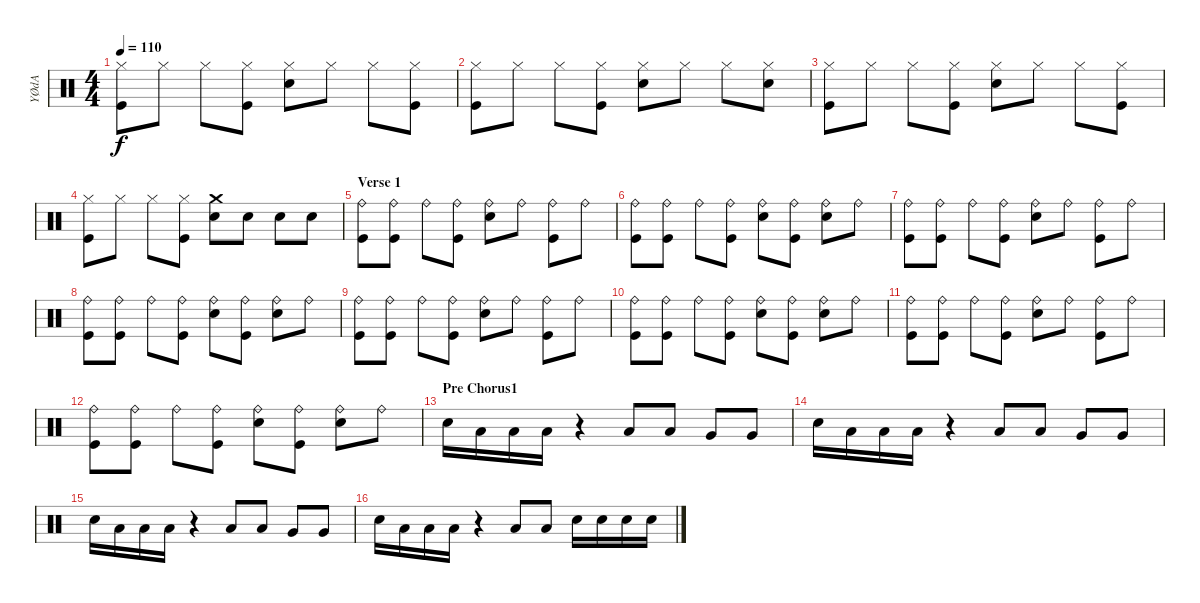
\track ("YØdA" "YØdA") {instrument percussion}
\staff {score}
\articulation defaults
\ts (4 4)
\tempo 110
\clef neutral
\ks c
("Hi-Hat (closed)" "Kick (hit)").8{dy f} "Hi-Hat (closed)".8 "Hi-Hat (closed)".8 ("Hi-Hat (closed)" "Kick (hit)").8 ("Hi-Hat (closed)" "Electric Snare (hit)").8 "Hi-Hat (closed)".8 "Hi-Hat (closed)".8 ("Hi-Hat (closed)" "Kick (hit)").8 |
("Hi-Hat (closed)" "Kick (hit)").8 "Hi-Hat (closed)".8 "Hi-Hat (closed)".8 ("Hi-Hat (closed)" "Kick (hit)").8 ("Hi-Hat (closed)" "Electric Snare (hit)").8 "Hi-Hat (closed)".8 "Hi-Hat (closed)".8 ("Hi-Hat (closed)" "Electric Snare (hit)").8 |
("Hi-Hat (closed)" "Kick (hit)").8 "Hi-Hat (closed)".8 "Hi-Hat (closed)".8 ("Hi-Hat (closed)" "Kick (hit)").8 ("Hi-Hat (closed)" "Electric Snare (hit)").8 "Hi-Hat (closed)".8 "Hi-Hat (closed)".8 ("Hi-Hat (closed)" "Kick (hit)").8 |
("Hi-Hat (closed)" "Kick (hit)").8 "Hi-Hat (closed)".8 "Hi-Hat (closed)".8 ("Hi-Hat (closed)" "Kick (hit)").8 ("Crash medium (hit)" "Electric Snare (hit)").8 "Electric Snare (hit)".8 "Electric Snare (hit)".8 "Electric Snare (hit)".8 |
\section ("" "Verse 1")
("Ride (bell)" "Kick (hit)").8 ("Ride (bell)" "Kick (hit)").8 "Ride (bell)".8 ("Ride (bell)" "Kick (hit)").8 ("Ride (bell)" "Electric Snare (hit)").8 "Ride (bell)".8 ("Ride (bell)" "Kick (hit)").8 "Ride (bell)".8 |
("Ride (bell)" "Kick (hit)").8 ("Ride (bell)" "Kick (hit)").8 "Ride (bell)".8 ("Ride (bell)" "Kick (hit)").8 ("Ride (bell)" "Electric Snare (hit)").8 ("Ride (bell)" "Kick (hit)").8 ("Ride (bell)" "Electric Snare (hit)").8 "Ride (bell)".8 |
("Ride (bell)" "Kick (hit)").8 ("Ride (bell)" "Kick (hit)").8 "Ride (bell)".8 ("Ride (bell)" "Kick (hit)").8 ("Ride (bell)" "Electric Snare (hit)").8 "Ride (bell)".8 ("Ride (bell)" "Kick (hit)").8 "Ride (bell)".8 |
("Ride (bell)" "Kick (hit)").8 ("Ride (bell)" "Kick (hit)").8 "Ride (bell)".8 ("Ride (bell)" "Kick (hit)").8 ("Ride (bell)" "Electric Snare (hit)").8 ("Ride (bell)" "Kick (hit)").8 ("Ride (bell)" "Electric Snare (hit)").8 "Ride (bell)".8 |
("Ride (bell)" "Kick (hit)").8 ("Ride (bell)" "Kick (hit)").8 "Ride (bell)".8 ("Ride (bell)" "Kick (hit)").8 ("Ride (bell)" "Electric Snare (hit)").8 "Ride (bell)".8 ("Ride (bell)" "Kick (hit)").8 "Ride (bell)".8 |
("Ride (bell)" "Kick (hit)").8 ("Ride (bell)" "Kick (hit)").8 "Ride (bell)".8 ("Ride (bell)" "Kick (hit)").8 ("Ride (bell)" "Electric Snare (hit)").8 ("Ride (bell)" "Kick (hit)").8 ("Ride (bell)" "Electric Snare (hit)").8 "Ride (bell)".8 |
("Ride (bell)" "Kick (hit)").8 ("Ride (bell)" "Kick (hit)").8 "Ride (bell)".8 ("Ride (bell)" "Kick (hit)").8 ("Ride (bell)" "Electric Snare (hit)").8 "Ride (bell)".8 ("Ride (bell)" "Kick (hit)").8 "Ride (bell)".8 |
("Ride (bell)" "Kick (hit)").8 ("Ride (bell)" "Kick (hit)").8 "Ride (bell)".8 ("Ride (bell)" "Kick (hit)").8 ("Ride (bell)" "Electric Snare (hit)").8 ("Ride (bell)" "Kick (hit)").8 ("Ride (bell)" "Electric Snare (hit)").8 "Ride (bell)".8 |
\section ("" "Pre Chorus1")
"Electric Snare (hit)".16 "Low Tom (hit)".16 "Low Tom (hit)".16 "Low Tom (hit)".16 r.4 "Low Tom (hit)".8 "Low Tom (hit)".8 "Very Low Tom (hit)".8 "Very Low Tom (hit)".8 |
"Electric Snare (hit)".16 "Low Tom (hit)".16 "Low Tom (hit)".16 "Low Tom (hit)".16 r.4 "Low Tom (hit)".8 "Low Tom (hit)".8 "Very Low Tom (hit)".8 "Very Low Tom (hit)".8 |
"Electric Snare (hit)".16 "Low Tom (hit)".16 "Low Tom (hit)".16 "Low Tom (hit)".16 r.4 "Low Tom (hit)".8 "Low Tom (hit)".8 "Very Low Tom (hit)".8 "Very Low Tom (hit)".8 |
"Electric Snare (hit)".16 "Low Tom (hit)".16 "Low Tom (hit)".16 "Low Tom (hit)".16 r.4 "Low Tom (hit)".8 "Low Tom (hit)".8 "Electric Snare (hit)".16 "Electric Snare (hit)".16 "Electric Snare (hit)".16 "Electric Snare (hit)".16
